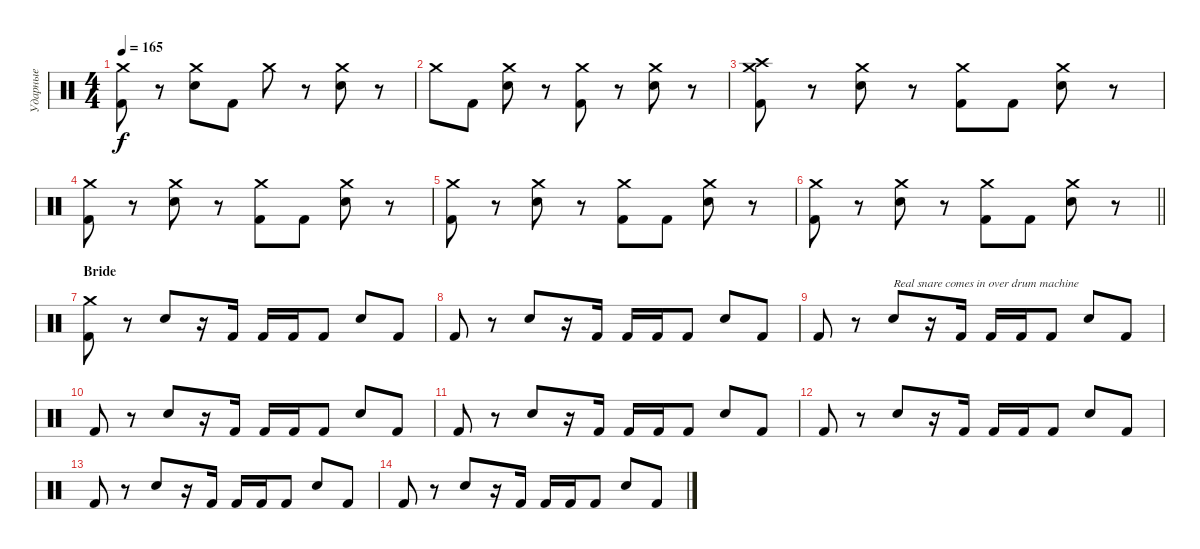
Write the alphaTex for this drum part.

\track ("Ударные" "Ударные") {instrument percussion}
\staff {score}
\articulation defaults
\ts (4 4)
\tempo 165
\clef neutral
\ks c
("Crash medium (hit)" "Kick (hit) 2").8{dy f} r.8 ("Crash medium (hit)" "Electric Snare (hit)").8 "Kick (hit) 2".8 "Crash medium (hit)".8 r.8 ("Crash medium (hit)" "Electric Snare (hit)").8 r.8 |
"Crash medium (hit)".8 "Kick (hit) 2".8 ("Crash medium (hit)" "Electric Snare (hit)").8 r.8 ("Crash medium (hit)" "Kick (hit) 2").8 r.8 ("Crash medium (hit)" "Electric Snare (hit)").8 r.8 |
("Crash medium (hit)" "Crash high (hit)" "Kick (hit) 2").8 r.8 ("Crash medium (hit)" "Electric Snare (hit)").8 r.8 ("Crash medium (hit)" "Kick (hit) 2").8 "Kick (hit) 2".8 ("Crash medium (hit)" "Electric Snare (hit)").8 r.8 |
("Crash medium (hit)" "Kick (hit) 2").8 r.8 ("Crash medium (hit)" "Electric Snare (hit)").8 r.8 ("Crash medium (hit)" "Kick (hit) 2").8 "Kick (hit) 2".8 ("Crash medium (hit)" "Electric Snare (hit)").8 r.8 |
("Crash medium (hit)" "Kick (hit) 2").8 r.8 ("Crash medium (hit)" "Electric Snare (hit)").8 r.8 ("Crash medium (hit)" "Kick (hit) 2").8 "Kick (hit) 2".8 ("Crash medium (hit)" "Electric Snare (hit)").8 r.8 |
\barLineRight lightlight
("Crash medium (hit)" "Kick (hit) 2").8 r.8 ("Crash medium (hit)" "Electric Snare (hit)").8 r.8 ("Crash medium (hit)" "Kick (hit) 2").8 "Kick (hit) 2".8 ("Crash medium (hit)" "Electric Snare (hit)").8 r.8 |
\section ("" "Bride")
("Crash medium (hit)" "Kick (hit) 2").8 r.8 "Electric Snare (hit)".8 r.16 "Kick (hit) 2".16 "Kick (hit) 2".16 "Kick (hit) 2".16 "Kick (hit) 2".8 "Electric Snare (hit)".8 "Kick (hit) 2".8 |
"Kick (hit) 2".8 r.8 "Electric Snare (hit)".8 r.16 "Kick (hit) 2".16 "Kick (hit) 2".16 "Kick (hit) 2".16 "Kick (hit) 2".8 "Electric Snare (hit)".8 "Kick (hit) 2".8 |
"Kick (hit) 2".8 r.8 "Electric Snare (hit)".8{txt "Real snare comes in over drum machine"} r.16 "Kick (hit) 2".16 "Kick (hit) 2".16 "Kick (hit) 2".16 "Kick (hit) 2".8 "Electric Snare (hit)".8 "Kick (hit) 2".8 |
"Kick (hit) 2".8 r.8 "Electric Snare (hit)".8 r.16 "Kick (hit) 2".16 "Kick (hit) 2".16 "Kick (hit) 2".16 "Kick (hit) 2".8 "Electric Snare (hit)".8 "Kick (hit) 2".8 |
"Kick (hit) 2".8 r.8 "Electric Snare (hit)".8 r.16 "Kick (hit) 2".16 "Kick (hit) 2".16 "Kick (hit) 2".16 "Kick (hit) 2".8 "Electric Snare (hit)".8 "Kick (hit) 2".8 |
"Kick (hit) 2".8 r.8 "Electric Snare (hit)".8 r.16 "Kick (hit) 2".16 "Kick (hit) 2".16 "Kick (hit) 2".16 "Kick (hit) 2".8 "Electric Snare (hit)".8 "Kick (hit) 2".8 |
"Kick (hit) 2".8 r.8 "Electric Snare (hit)".8 r.16 "Kick (hit) 2".16 "Kick (hit) 2".16 "Kick (hit) 2".16 "Kick (hit) 2".8 "Electric Snare (hit)".8 "Kick (hit) 2".8 |
"Kick (hit) 2".8 r.8 "Electric Snare (hit)".8 r.16 "Kick (hit) 2".16 "Kick (hit) 2".16 "Kick (hit) 2".16 "Kick (hit) 2".8 "Electric Snare (hit)".8 "Kick (hit) 2".8
